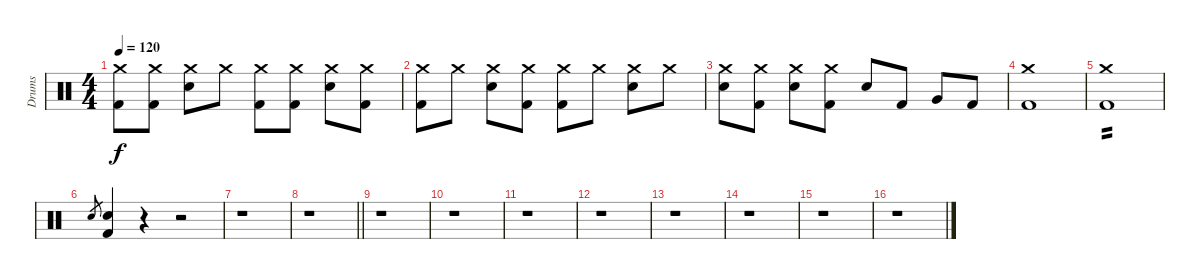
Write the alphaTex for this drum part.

\track ("Drums" "Drums") {instrument percussion}
\staff {score}
\articulation defaults
\ts (4 4)
\tempo 120
\clef neutral
\ks c
("Crash medium (hit)" "Kick (hit) 2").8{dy f} ("Crash medium (hit)" "Kick (hit) 2").8 ("Crash medium (hit)" "Snare (hit) 2").8 "Crash medium (hit)".8 ("Crash medium (hit)" "Kick (hit) 2").8 ("Crash medium (hit)" "Kick (hit) 2").8 ("Crash medium (hit)" "Snare (hit) 2").8 ("Crash medium (hit)" "Kick (hit) 2").8 |
("Crash medium (hit)" "Kick (hit) 2").8 "Crash medium (hit)".8 ("Crash medium (hit)" "Snare (hit) 2").8 ("Crash medium (hit)" "Kick (hit) 2").8 ("Crash medium (hit)" "Kick (hit) 2").8 "Crash medium (hit)".8 ("Crash medium (hit)" "Snare (hit) 2").8 "Crash medium (hit)".8 |
("Crash medium (hit)" "Snare (hit) 2").8 ("Crash medium (hit)" "Kick (hit) 2").8 ("Crash medium (hit)" "Snare (hit) 2").8 ("Crash medium (hit)" "Kick (hit) 2").8 "Snare (hit) 2".8 "Kick (hit) 2".8 "Very Low Tom (hit)".8 "Kick (hit) 2".8 |
("Crash medium (hit)" "Kick (hit) 2").1 |
("Crash medium (hit)" "Kick (hit) 2").1{tp 2} |
"Snare (hit) 2".8{gr} ("Snare (hit) 2" "Kick (hit) 2").4 r.4 r.2 |
r.1 |
\barLineRight lightlight
r.1 |
r.1 |
r.1 |
r.1 |
r.1 |
r.1 |
r.1 |
r.1 |
r.1
